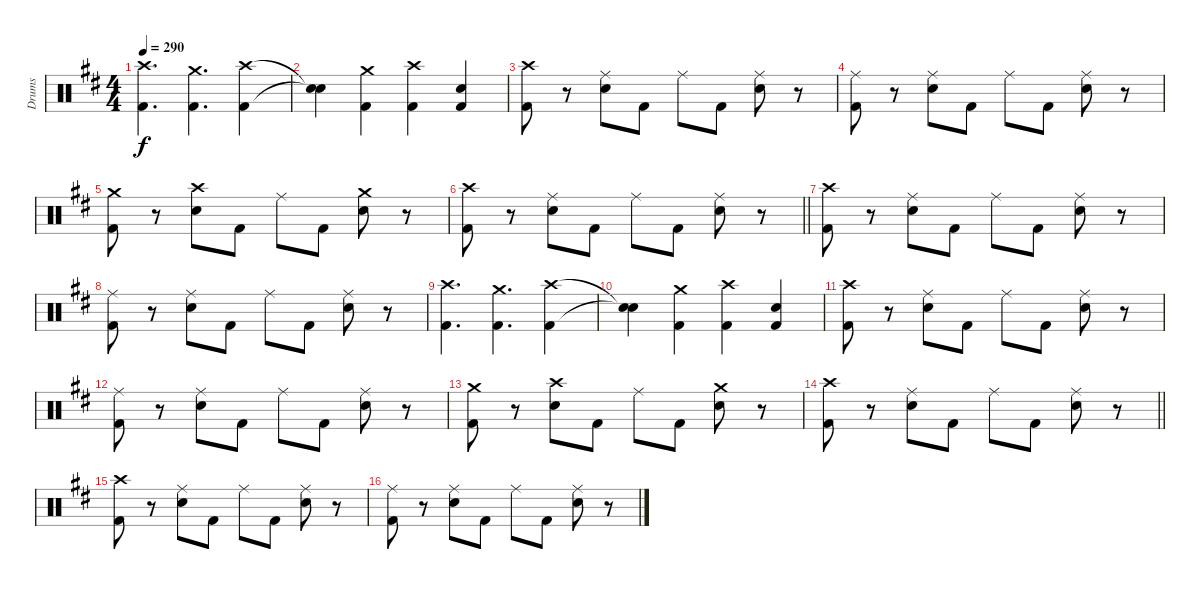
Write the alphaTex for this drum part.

\track ("Drums" "Drums") {instrument percussion}
\staff {score}
\articulation defaults
\ts (4 4)
\tempo 290
\clef neutral
\ks d
("Crash high (hit)" "Kick (hit) 2").4{d dy f} ("Crash medium (hit)" "Kick (hit) 2").4{d} ("Crash high (hit)" "Kick (hit) 2").4 |
("Snare (hit)"{t} "Snare (hit)"{t}).4 ("Crash medium (hit)" "Kick (hit) 2").4 ("Crash high (hit)" "Kick (hit) 2").4 ("Electric Snare (hit)" "Kick (hit) 2").4 |
("Crash high (hit)" "Kick (hit) 2").8 r.8 ("Ride (middle)" "Electric Snare (hit)").8 "Kick (hit) 2".8 "Ride (middle)".8 "Kick (hit) 2".8 ("Ride (middle)" "Electric Snare (hit)").8 r.8 |
("Ride (middle)" "Kick (hit) 2").8 r.8 ("Ride (middle)" "Electric Snare (hit)").8 "Kick (hit) 2".8 "Ride (middle)".8 "Kick (hit) 2".8 ("Ride (middle)" "Electric Snare (hit)").8 r.8 |
("Crash medium (hit)" "Kick (hit) 2").8 r.8 ("Crash high (hit)" "Electric Snare (hit)").8 "Kick (hit) 2".8 "Ride (middle)".8 "Kick (hit) 2".8 ("Crash medium (hit)" "Electric Snare (hit)").8 r.8 |
\barLineRight lightlight
("Crash high (hit)" "Kick (hit) 2").8 r.8 ("Ride (middle)" "Electric Snare (hit)").8 "Kick (hit) 2".8 "Ride (middle)".8 "Kick (hit) 2".8 ("Ride (middle)" "Electric Snare (hit)").8 r.8 |
("Crash high (hit)" "Kick (hit) 2").8 r.8 ("Ride (middle)" "Electric Snare (hit)").8 "Kick (hit) 2".8 "Ride (middle)".8 "Kick (hit) 2".8 ("Ride (middle)" "Electric Snare (hit)").8 r.8 |
("Ride (middle)" "Kick (hit) 2").8 r.8 ("Ride (middle)" "Electric Snare (hit)").8 "Kick (hit) 2".8 "Ride (middle)".8 "Kick (hit) 2".8 ("Ride (middle)" "Electric Snare (hit)").8 r.8 |
("Crash high (hit)" "Kick (hit) 2").4{d} ("Crash medium (hit)" "Kick (hit) 2").4{d} ("Crash high (hit)" "Kick (hit) 2").4 |
("Snare (hit)"{t} "Snare (hit)"{t}).4 ("Crash medium (hit)" "Kick (hit) 2").4 ("Crash high (hit)" "Kick (hit) 2").4 ("Electric Snare (hit)" "Kick (hit) 2").4 |
("Crash high (hit)" "Kick (hit) 2").8 r.8 ("Ride (middle)" "Electric Snare (hit)").8 "Kick (hit) 2".8 "Ride (middle)".8 "Kick (hit) 2".8 ("Ride (middle)" "Electric Snare (hit)").8 r.8 |
("Ride (middle)" "Kick (hit) 2").8 r.8 ("Ride (middle)" "Electric Snare (hit)").8 "Kick (hit) 2".8 "Ride (middle)".8 "Kick (hit) 2".8 ("Ride (middle)" "Electric Snare (hit)").8 r.8 |
("Crash medium (hit)" "Kick (hit) 2").8 r.8 ("Crash high (hit)" "Electric Snare (hit)").8 "Kick (hit) 2".8 "Ride (middle)".8 "Kick (hit) 2".8 ("Crash medium (hit)" "Electric Snare (hit)").8 r.8 |
\barLineRight lightlight
("Crash high (hit)" "Kick (hit) 2").8 r.8 ("Ride (middle)" "Electric Snare (hit)").8 "Kick (hit) 2".8 "Ride (middle)".8 "Kick (hit) 2".8 ("Ride (middle)" "Electric Snare (hit)").8 r.8 |
("Crash high (hit)" "Kick (hit) 2").8 r.8 ("Ride (middle)" "Electric Snare (hit)").8 "Kick (hit) 2".8 "Ride (middle)".8 "Kick (hit) 2".8 ("Ride (middle)" "Electric Snare (hit)").8 r.8 |
("Ride (middle)" "Kick (hit) 2").8 r.8 ("Ride (middle)" "Electric Snare (hit)").8 "Kick (hit) 2".8 "Ride (middle)".8 "Kick (hit) 2".8 ("Ride (middle)" "Electric Snare (hit)").8 r.8
